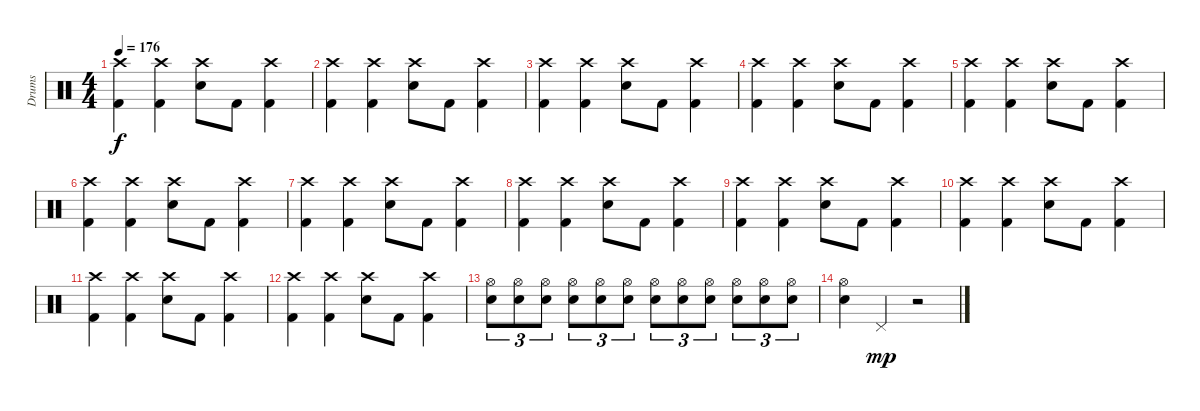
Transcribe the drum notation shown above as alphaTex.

\track ("Drums" "Drums") {instrument percussion}
\staff {score}
\articulation defaults
\ts (4 4)
\tempo 176
\clef neutral
\ks c
("Crash high (hit)" "Kick (hit) 2").4{dy f} ("Crash high (hit)" "Kick (hit) 2").4 ("Crash high (hit)" "Electric Snare (hit)").8 "Kick (hit) 2".8 ("Crash high (hit)" "Kick (hit) 2").4 |
("Crash high (hit)" "Kick (hit) 2").4 ("Crash high (hit)" "Kick (hit) 2").4 ("Crash high (hit)" "Electric Snare (hit)").8 "Kick (hit) 2".8 ("Crash high (hit)" "Kick (hit) 2").4 |
("Crash high (hit)" "Kick (hit) 2").4 ("Crash high (hit)" "Kick (hit) 2").4 ("Crash high (hit)" "Electric Snare (hit)").8 "Kick (hit) 2".8 ("Crash high (hit)" "Kick (hit) 2").4 |
("Crash high (hit)" "Kick (hit) 2").4 ("Crash high (hit)" "Kick (hit) 2").4 ("Crash high (hit)" "Electric Snare (hit)").8 "Kick (hit) 2".8 ("Crash high (hit)" "Kick (hit) 2").4 |
("Crash high (hit)" "Kick (hit) 2").4 ("Crash high (hit)" "Kick (hit) 2").4 ("Crash high (hit)" "Electric Snare (hit)").8 "Kick (hit) 2".8 ("Crash high (hit)" "Kick (hit) 2").4 |
("Crash high (hit)" "Kick (hit) 2").4 ("Crash high (hit)" "Kick (hit) 2").4 ("Crash high (hit)" "Electric Snare (hit)").8 "Kick (hit) 2".8 ("Crash high (hit)" "Kick (hit) 2").4 |
("Crash high (hit)" "Kick (hit) 2").4 ("Crash high (hit)" "Kick (hit) 2").4 ("Crash high (hit)" "Electric Snare (hit)").8 "Kick (hit) 2".8 ("Crash high (hit)" "Kick (hit) 2").4 |
("Crash high (hit)" "Kick (hit) 2").4 ("Crash high (hit)" "Kick (hit) 2").4 ("Crash high (hit)" "Electric Snare (hit)").8 "Kick (hit) 2".8 ("Crash high (hit)" "Kick (hit) 2").4 |
("Crash high (hit)" "Kick (hit) 2").4 ("Crash high (hit)" "Kick (hit) 2").4 ("Crash high (hit)" "Electric Snare (hit)").8 "Kick (hit) 2".8 ("Crash high (hit)" "Kick (hit) 2").4 |
("Crash high (hit)" "Kick (hit) 2").4 ("Crash high (hit)" "Kick (hit) 2").4 ("Crash high (hit)" "Electric Snare (hit)").8 "Kick (hit) 2".8 ("Crash high (hit)" "Kick (hit) 2").4 |
("Crash high (hit)" "Kick (hit) 2").4 ("Crash high (hit)" "Kick (hit) 2").4 ("Crash high (hit)" "Electric Snare (hit)").8 "Kick (hit) 2".8 ("Crash high (hit)" "Kick (hit) 2").4 |
("Crash high (hit)" "Kick (hit) 2").4 ("Crash high (hit)" "Kick (hit) 2").4 ("Crash high (hit)" "Electric Snare (hit)").8 "Kick (hit) 2".8 ("Crash high (hit)" "Kick (hit) 2").4 |
("Hi-Hat (open)" "Electric Snare (hit)").8{tu (3 2)} ("Hi-Hat (open)" "Electric Snare (hit)").8{tu (3 2)} ("Hi-Hat (open)" "Electric Snare (hit)").8{tu (3 2)} ("Hi-Hat (open)" "Electric Snare (hit)").8{tu (3 2)} ("Hi-Hat (open)" "Electric Snare (hit)").8{tu (3 2)} ("Hi-Hat (open)" "Electric Snare (hit)").8{tu (3 2)} ("Hi-Hat (open)" "Electric Snare (hit)").8{tu (3 2)} ("Hi-Hat (open)" "Electric Snare (hit)").8{tu (3 2)} ("Hi-Hat (open)" "Electric Snare (hit)").8{tu (3 2)} ("Hi-Hat (open)" "Electric Snare (hit)").8{tu (3 2)} ("Hi-Hat (open)" "Electric Snare (hit)").8{tu (3 2)} ("Hi-Hat (open)" "Electric Snare (hit)").8{tu (3 2)} |
("Hi-Hat (open)" "Electric Snare (hit)").4 "Pedal Hi-Hat (hit)".4{dy mp} r.2
